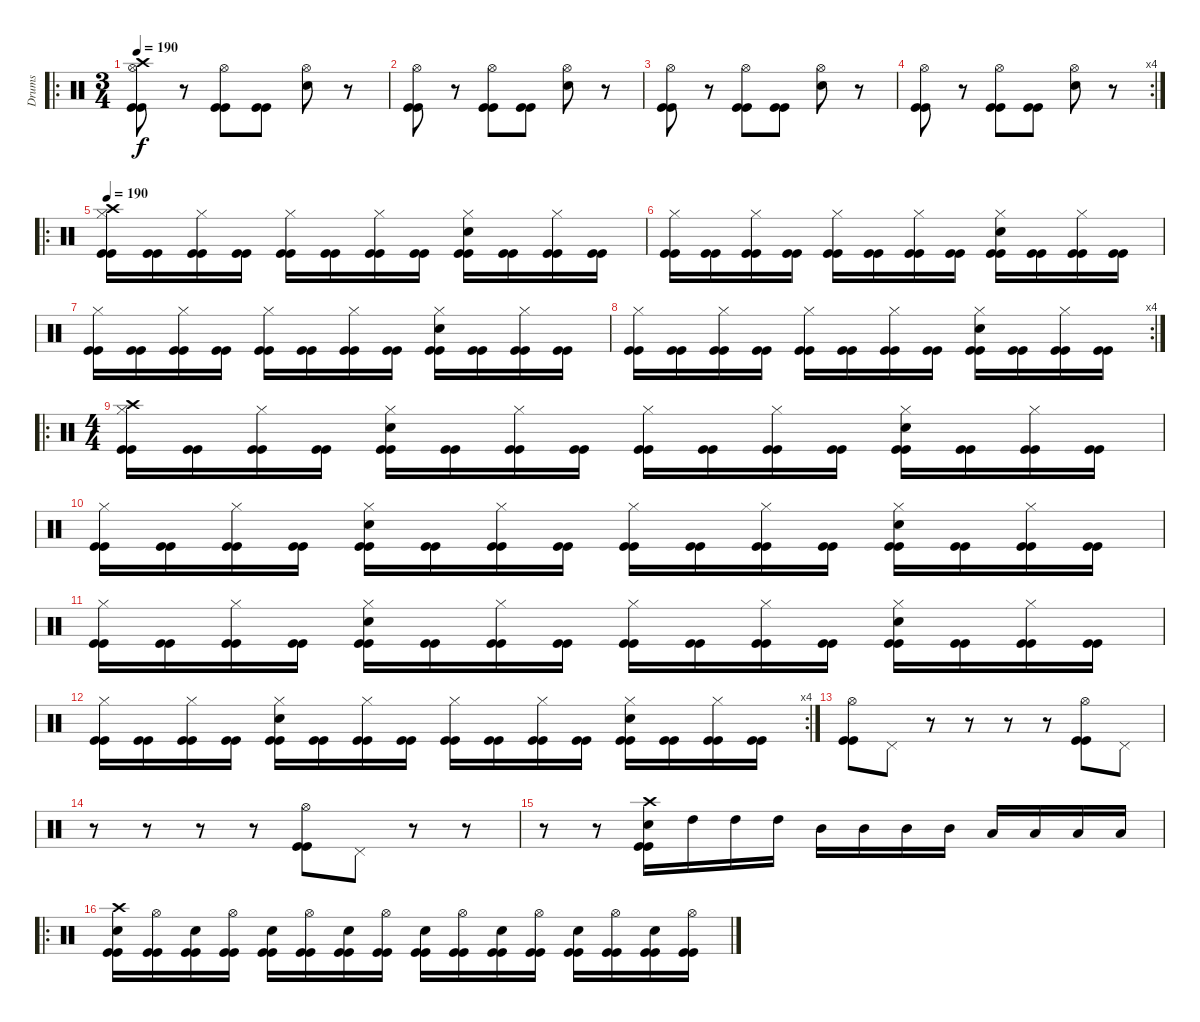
\track ("Drums" "Drums") {instrument percussion}
\staff {score}
\articulation defaults
\ro
\ts (3 4)
\tempo 190
\clef neutral
\ks c
("Crash high (hit)" "Hi-Hat (open)" "Kick (hit)" "Kick (hit)").8{dy f} r.8 ("Hi-Hat (open)" "Kick (hit)" "Kick (hit)").8 ("Kick (hit)" "Kick (hit)").8 ("Snare (hit) 2" "Hi-Hat (open)").8 r.8 |
("Hi-Hat (open)" "Kick (hit)" "Kick (hit)").8 r.8 ("Hi-Hat (open)" "Kick (hit)" "Kick (hit)").8 ("Kick (hit)" "Kick (hit)").8 ("Snare (hit) 2" "Hi-Hat (open)").8 r.8 |
("Hi-Hat (open)" "Kick (hit)" "Kick (hit)").8 r.8 ("Hi-Hat (open)" "Kick (hit)" "Kick (hit)").8 ("Kick (hit)" "Kick (hit)").8 ("Snare (hit) 2" "Hi-Hat (open)").8 r.8 |
\rc 4
("Hi-Hat (open)" "Kick (hit)" "Kick (hit)").8 r.8 ("Hi-Hat (open)" "Kick (hit)" "Kick (hit)").8 ("Kick (hit)" "Kick (hit)").8 ("Snare (hit) 2" "Hi-Hat (open)").8 r.8 |
\ro
\tempo 190
("Crash high (hit)" "Hi-Hat (closed)" "Kick (hit)" "Kick (hit)").16 ("Kick (hit)" "Kick (hit)").16 ("Hi-Hat (closed)" "Kick (hit)" "Kick (hit)").16 ("Kick (hit)" "Kick (hit)").16 ("Hi-Hat (closed)" "Kick (hit)" "Kick (hit)").16 ("Kick (hit)" "Kick (hit)").16 ("Hi-Hat (closed)" "Kick (hit)" "Kick (hit)").16 ("Kick (hit)" "Kick (hit)").16 ("Snare (hit) 2" "Hi-Hat (closed)" "Kick (hit)" "Kick (hit)").16 ("Kick (hit)" "Kick (hit)").16 ("Hi-Hat (closed)" "Kick (hit)" "Kick (hit)").16 ("Kick (hit)" "Kick (hit)").16 |
("Hi-Hat (closed)" "Kick (hit)" "Kick (hit)").16 ("Kick (hit)" "Kick (hit)").16 ("Hi-Hat (closed)" "Kick (hit)" "Kick (hit)").16 ("Kick (hit)" "Kick (hit)").16 ("Hi-Hat (closed)" "Kick (hit)" "Kick (hit)").16 ("Kick (hit)" "Kick (hit)").16 ("Hi-Hat (closed)" "Kick (hit)" "Kick (hit)").16 ("Kick (hit)" "Kick (hit)").16 ("Snare (hit) 2" "Hi-Hat (closed)" "Kick (hit)" "Kick (hit)").16 ("Kick (hit)" "Kick (hit)").16 ("Hi-Hat (closed)" "Kick (hit)" "Kick (hit)").16 ("Kick (hit)" "Kick (hit)").16 |
("Hi-Hat (closed)" "Kick (hit)" "Kick (hit)").16 ("Kick (hit)" "Kick (hit)").16 ("Hi-Hat (closed)" "Kick (hit)" "Kick (hit)").16 ("Kick (hit)" "Kick (hit)").16 ("Hi-Hat (closed)" "Kick (hit)" "Kick (hit)").16 ("Kick (hit)" "Kick (hit)").16 ("Hi-Hat (closed)" "Kick (hit)" "Kick (hit)").16 ("Kick (hit)" "Kick (hit)").16 ("Snare (hit) 2" "Hi-Hat (closed)" "Kick (hit)" "Kick (hit)").16 ("Kick (hit)" "Kick (hit)").16 ("Hi-Hat (closed)" "Kick (hit)" "Kick (hit)").16 ("Kick (hit)" "Kick (hit)").16 |
\rc 4
("Hi-Hat (closed)" "Kick (hit)" "Kick (hit)").16 ("Kick (hit)" "Kick (hit)").16 ("Hi-Hat (closed)" "Kick (hit)" "Kick (hit)").16 ("Kick (hit)" "Kick (hit)").16 ("Hi-Hat (closed)" "Kick (hit)" "Kick (hit)").16 ("Kick (hit)" "Kick (hit)").16 ("Hi-Hat (closed)" "Kick (hit)" "Kick (hit)").16 ("Kick (hit)" "Kick (hit)").16 ("Snare (hit) 2" "Hi-Hat (closed)" "Kick (hit)" "Kick (hit)").16 ("Kick (hit)" "Kick (hit)").16 ("Hi-Hat (closed)" "Kick (hit)" "Kick (hit)").16 ("Kick (hit)" "Kick (hit)").16 |
\ro
\ts (4 4)
("Crash high (hit)" "Hi-Hat (closed)" "Kick (hit)" "Kick (hit)").16 ("Kick (hit)" "Kick (hit)").16 ("Hi-Hat (closed)" "Kick (hit)" "Kick (hit)").16 ("Kick (hit)" "Kick (hit)").16 ("Snare (hit) 2" "Hi-Hat (closed)" "Kick (hit)" "Kick (hit)").16 ("Kick (hit)" "Kick (hit)").16 ("Hi-Hat (closed)" "Kick (hit)" "Kick (hit)").16 ("Kick (hit)" "Kick (hit)").16 ("Hi-Hat (closed)" "Kick (hit)" "Kick (hit)").16 ("Kick (hit)" "Kick (hit)").16 ("Hi-Hat (closed)" "Kick (hit)" "Kick (hit)").16 ("Kick (hit)" "Kick (hit)").16 ("Snare (hit) 2" "Hi-Hat (closed)" "Kick (hit)" "Kick (hit)").16 ("Kick (hit)" "Kick (hit)").16 ("Hi-Hat (closed)" "Kick (hit)" "Kick (hit)").16 ("Kick (hit)" "Kick (hit)").16 |
("Hi-Hat (closed)" "Kick (hit)" "Kick (hit)").16 ("Kick (hit)" "Kick (hit)").16 ("Hi-Hat (closed)" "Kick (hit)" "Kick (hit)").16 ("Kick (hit)" "Kick (hit)").16 ("Snare (hit) 2" "Hi-Hat (closed)" "Kick (hit)" "Kick (hit)").16 ("Kick (hit)" "Kick (hit)").16 ("Hi-Hat (closed)" "Kick (hit)" "Kick (hit)").16 ("Kick (hit)" "Kick (hit)").16 ("Hi-Hat (closed)" "Kick (hit)" "Kick (hit)").16 ("Kick (hit)" "Kick (hit)").16 ("Hi-Hat (closed)" "Kick (hit)" "Kick (hit)").16 ("Kick (hit)" "Kick (hit)").16 ("Snare (hit) 2" "Hi-Hat (closed)" "Kick (hit)" "Kick (hit)").16 ("Kick (hit)" "Kick (hit)").16 ("Hi-Hat (closed)" "Kick (hit)" "Kick (hit)").16 ("Kick (hit)" "Kick (hit)").16 |
("Hi-Hat (closed)" "Kick (hit)" "Kick (hit)").16 ("Kick (hit)" "Kick (hit)").16 ("Hi-Hat (closed)" "Kick (hit)" "Kick (hit)").16 ("Kick (hit)" "Kick (hit)").16 ("Snare (hit) 2" "Hi-Hat (closed)" "Kick (hit)" "Kick (hit)").16 ("Kick (hit)" "Kick (hit)").16 ("Hi-Hat (closed)" "Kick (hit)" "Kick (hit)").16 ("Kick (hit)" "Kick (hit)").16 ("Hi-Hat (closed)" "Kick (hit)" "Kick (hit)").16 ("Kick (hit)" "Kick (hit)").16 ("Hi-Hat (closed)" "Kick (hit)" "Kick (hit)").16 ("Kick (hit)" "Kick (hit)").16 ("Snare (hit) 2" "Hi-Hat (closed)" "Kick (hit)" "Kick (hit)").16 ("Kick (hit)" "Kick (hit)").16 ("Hi-Hat (closed)" "Kick (hit)" "Kick (hit)").16 ("Kick (hit)" "Kick (hit)").16 |
\rc 4
("Hi-Hat (closed)" "Kick (hit)" "Kick (hit)").16 ("Kick (hit)" "Kick (hit)").16 ("Hi-Hat (closed)" "Kick (hit)" "Kick (hit)").16 ("Kick (hit)" "Kick (hit)").16 ("Snare (hit) 2" "Hi-Hat (closed)" "Kick (hit)" "Kick (hit)").16 ("Kick (hit)" "Kick (hit)").16 ("Hi-Hat (closed)" "Kick (hit)" "Kick (hit)").16 ("Kick (hit)" "Kick (hit)").16 ("Hi-Hat (closed)" "Kick (hit)" "Kick (hit)").16 ("Kick (hit)" "Kick (hit)").16 ("Hi-Hat (closed)" "Kick (hit)" "Kick (hit)").16 ("Kick (hit)" "Kick (hit)").16 ("Snare (hit) 2" "Hi-Hat (closed)" "Kick (hit)" "Kick (hit)").16 ("Kick (hit)" "Kick (hit)").16 ("Hi-Hat (closed)" "Kick (hit)" "Kick (hit)").16 ("Kick (hit)" "Kick (hit)").16 |
("Hi-Hat (open)" "Kick (hit)" "Kick (hit)").8 "Pedal Hi-Hat (hit)".8 r.8 r.8 r.8 r.8 ("Hi-Hat (open)" "Kick (hit)" "Kick (hit)").8 "Pedal Hi-Hat (hit)".8 |
r.8 r.8 r.8 r.8 ("Hi-Hat (open)" "Kick (hit)" "Kick (hit)").8 "Pedal Hi-Hat (hit)".8 r.8 r.8 |
r.8 r.8 ("Crash high (hit)" "Snare (hit) 2" "Kick (hit)" "Kick (hit)").16 "High Tom (hit)".16 "High Tom (hit)".16 "High Tom (hit)".16 "Mid Tom (hit)".16 "Mid Tom (hit)".16 "Mid Tom (hit)".16 "Mid Tom (hit)".16 "Low Tom (hit)".16 "Low Tom (hit)".16 "Low Tom (hit)".16 "Low Tom (hit)".16 |
\ro
("Crash high (hit)" "Snare (hit) 2" "Kick (hit)" "Kick (hit)").16 ("Hi-Hat (open)" "Kick (hit)" "Kick (hit)").16 ("Snare (hit) 2" "Kick (hit)" "Kick (hit)").16 ("Hi-Hat (open)" "Kick (hit)" "Kick (hit)").16 ("Snare (hit) 2" "Kick (hit)" "Kick (hit)").16 ("Hi-Hat (open)" "Kick (hit)" "Kick (hit)").16 ("Snare (hit) 2" "Kick (hit)" "Kick (hit)").16 ("Hi-Hat (open)" "Kick (hit)" "Kick (hit)").16 ("Snare (hit) 2" "Kick (hit)" "Kick (hit)").16 ("Hi-Hat (open)" "Kick (hit)" "Kick (hit)").16 ("Snare (hit) 2" "Kick (hit)" "Kick (hit)").16 ("Hi-Hat (open)" "Kick (hit)" "Kick (hit)").16 ("Snare (hit) 2" "Kick (hit)" "Kick (hit)").16 ("Hi-Hat (open)" "Kick (hit)" "Kick (hit)").16 ("Snare (hit) 2" "Kick (hit)" "Kick (hit)").16 ("Hi-Hat (open)" "Kick (hit)" "Kick (hit)").16
